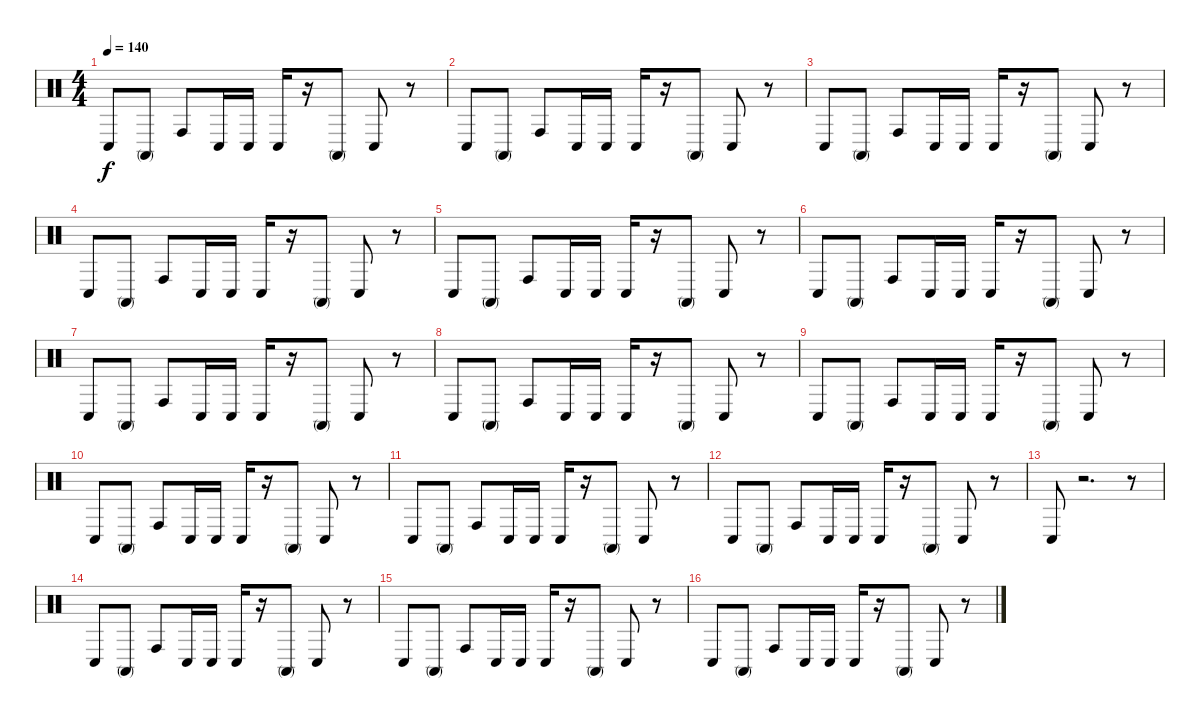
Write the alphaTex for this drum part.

\track "" {instrument percussion}
\staff {score}
\articulation defaults
\ts (4 4)
\tempo 140
\clef neutral
\ks c "Conga low (hit)".8{dy f} "Conga high (mute)".8 "Conga high (hit)".8 "Conga low (hit)".16 "Conga low (hit)".16 "Conga low (hit)".16
r.16 "Conga high (mute)".8 "Conga low (hit)".8 r.8 |
"Conga low (hit)".8 "Conga high (mute)".8 "Conga high (hit)".8 "Conga low (hit)".16 "Conga low (hit)".16 "Conga low (hit)".16 r.16 "Conga high (mute)".8 "Conga low (hit)".8 r.8 |
"Conga low (hit)".8 "Conga high (mute)".8 "Conga high (hit)".8 "Conga low (hit)".16 "Conga low (hit)".16 "Conga low (hit)".16 r.16 "Conga high (mute)".8 "Conga low (hit)".8 r.8 |
"Conga low (hit)".8 "Conga high (mute)".8 "Conga high (hit)".8 "Conga low (hit)".16 "Conga low (hit)".16 "Conga low (hit)".16 r.16 "Conga high (mute)".8 "Conga low (hit)".8 r.8 |
"Conga low (hit)".8 "Conga high (mute)".8 "Conga high (hit)".8 "Conga low (hit)".16 "Conga low (hit)".16 "Conga low (hit)".16 r.16 "Conga high (mute)".8 "Conga low (hit)".8 r.8 |
"Conga low (hit)".8 "Conga high (mute)".8 "Conga high (hit)".8 "Conga low (hit)".16 "Conga low (hit)".16 "Conga low (hit)".16 r.16 "Conga high (mute)".8 "Conga low (hit)".8 r.8 |
"Conga low (hit)".8 "Conga high (mute)".8 "Conga high (hit)".8 "Conga low (hit)".16 "Conga low (hit)".16 "Conga low (hit)".16 r.16 "Conga high (mute)".8 "Conga low (hit)".8 r.8 |
"Conga low (hit)".8 "Conga high (mute)".8 "Conga high (hit)".8 "Conga low (hit)".16 "Conga low (hit)".16 "Conga low (hit)".16 r.16 "Conga high (mute)".8 "Conga low (hit)".8 r.8 |
"Conga low (hit)".8 "Conga high (mute)".8 "Conga high (hit)".8 "Conga low (hit)".16 "Conga low (hit)".16 "Conga low (hit)".16 r.16 "Conga high (mute)".8 "Conga low (hit)".8 r.8 |
"Conga low (hit)".8 "Conga high (mute)".8 "Conga high (hit)".8 "Conga low (hit)".16 "Conga low (hit)".16 "Conga low (hit)".16 r.16 "Conga high (mute)".8 "Conga low (hit)".8 r.8 |
"Conga low (hit)".8 "Conga high (mute)".8 "Conga high (hit)".8 "Conga low (hit)".16 "Conga low (hit)".16 "Conga low (hit)".16 r.16 "Conga high (mute)".8 "Conga low (hit)".8 r.8 |
"Conga low (hit)".8 "Conga high (mute)".8 "Conga high (hit)".8 "Conga low (hit)".16 "Conga low (hit)".16 "Conga low (hit)".16 r.16 "Conga high (mute)".8 "Conga low (hit)".8 r.8 |
"Conga low (hit)".8 r.2{d} r.8 |
"Conga low (hit)".8 "Conga high (mute)".8 "Conga high (hit)".8 "Conga low (hit)".16 "Conga low (hit)".16 "Conga low (hit)".16 r.16 "Conga high (mute)".8 "Conga low (hit)".8 r.8 |
"Conga low (hit)".8 "Conga high (mute)".8 "Conga high (hit)".8 "Conga low (hit)".16 "Conga low (hit)".16 "Conga low (hit)".16 r.16 "Conga high (mute)".8 "Conga low (hit)".8 r.8 |
"Conga low (hit)".8 "Conga high (mute)".8 "Conga high (hit)".8 "Conga low (hit)".16 "Conga low (hit)".16 "Conga low (hit)".16 r.16 "Conga high (mute)".8 "Conga low (hit)".8 r.8
